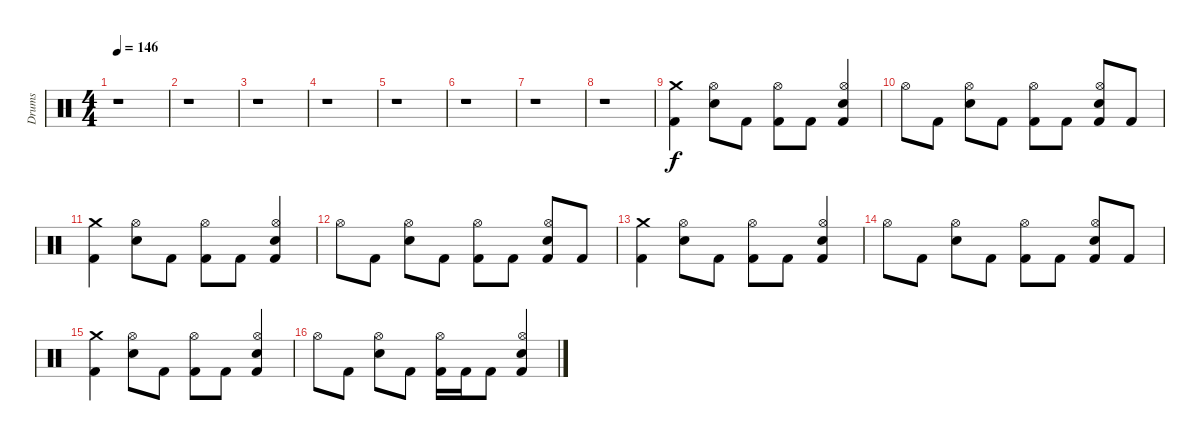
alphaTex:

\track ("Drums" "Drums") {instrument percussion}
\staff {score}
\articulation defaults
\ts (4 4)
\tempo 146
\clef neutral
\ks c
r.1{dy f} |
r.1 |
r.1 |
r.1 |
r.1 |
r.1 |
r.1 |
r.1 |
("Crash medium (hit)" "Kick (hit) 2").4 ("Hi-Hat (open)" "Snare (hit) 2").8 "Kick (hit) 2".8 ("Hi-Hat (open)" "Kick (hit) 2").8 "Kick (hit) 2".8 ("Hi-Hat (open)" "Snare (hit) 2" "Kick (hit) 2").4 |
"Hi-Hat (open)".8 "Kick (hit) 2".8 ("Hi-Hat (open)" "Snare (hit) 2").8 "Kick (hit) 2".8 ("Hi-Hat (open)" "Kick (hit) 2").8 "Kick (hit) 2".8 ("Hi-Hat (open)" "Snare (hit) 2" "Kick (hit) 2").8 "Kick (hit) 2".8 |
("Crash medium (hit)" "Kick (hit) 2").4 ("Hi-Hat (open)" "Snare (hit) 2").8 "Kick (hit) 2".8 ("Hi-Hat (open)" "Kick (hit) 2").8 "Kick (hit) 2".8 ("Hi-Hat (open)" "Snare (hit) 2" "Kick (hit) 2").4 |
"Hi-Hat (open)".8 "Kick (hit) 2".8 ("Hi-Hat (open)" "Snare (hit) 2").8 "Kick (hit) 2".8 ("Hi-Hat (open)" "Kick (hit) 2").8 "Kick (hit) 2".8 ("Hi-Hat (open)" "Snare (hit) 2" "Kick (hit) 2").8 "Kick (hit) 2".8 |
("Crash medium (hit)" "Kick (hit) 2").4 ("Hi-Hat (open)" "Snare (hit) 2").8 "Kick (hit) 2".8 ("Hi-Hat (open)" "Kick (hit) 2").8 "Kick (hit) 2".8 ("Hi-Hat (open)" "Snare (hit) 2" "Kick (hit) 2").4 |
"Hi-Hat (open)".8 "Kick (hit) 2".8 ("Hi-Hat (open)" "Snare (hit) 2").8 "Kick (hit) 2".8 ("Hi-Hat (open)" "Kick (hit) 2").8 "Kick (hit) 2".8 ("Hi-Hat (open)" "Snare (hit) 2" "Kick (hit) 2").8 "Kick (hit) 2".8 |
("Crash medium (hit)" "Kick (hit) 2").4 ("Hi-Hat (open)" "Snare (hit) 2").8 "Kick (hit) 2".8 ("Hi-Hat (open)" "Kick (hit) 2").8 "Kick (hit) 2".8 ("Hi-Hat (open)" "Snare (hit) 2" "Kick (hit) 2").4 |
"Hi-Hat (open)".8 "Kick (hit) 2".8 ("Hi-Hat (open)" "Snare (hit) 2").8 "Kick (hit) 2".8 ("Hi-Hat (open)" "Kick (hit) 2").16 "Kick (hit) 2".16 "Kick (hit) 2".8 ("Hi-Hat (open)" "Snare (hit) 2" "Kick (hit) 2").4
